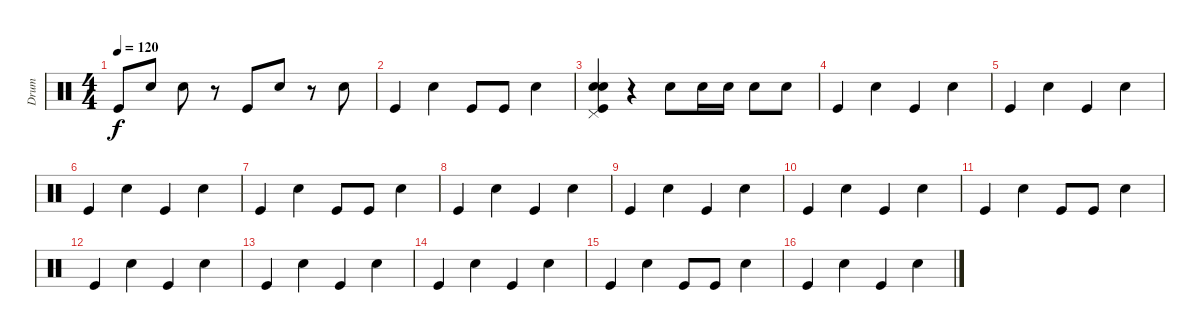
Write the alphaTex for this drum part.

\track ("Drum" "Drum") {instrument percussion}
\staff {score}
\articulation defaults
\ts (4 4)
\tempo 120
\clef neutral
\ks c "Kick (hit)".8{dy f} "Snare (hit) 2".8 "Snare (hit) 2".8
r.8 "Kick (hit)".8 "Snare (hit) 2".8 r.8 "Snare (hit) 2".8 |
"Kick (hit)".4 "Snare (hit) 2".4 "Kick (hit)".8 "Kick (hit)".8 "Snare (hit) 2".4 |
("Snare (hit) 2" "Kick (hit)" "Electric Snare (hit)" "Pedal Hi-Hat (hit)").4 r.4 "Snare (hit) 2".8 "Snare (hit) 2".16 "Snare (hit) 2".16 "Snare (hit) 2".8 "Snare (hit) 2".8 |
"Kick (hit)".4 "Snare (hit) 2".4 "Kick (hit)".4 "Snare (hit) 2".4 |
"Kick (hit)".4 "Snare (hit) 2".4 "Kick (hit)".4 "Snare (hit) 2".4 |
"Kick (hit)".4 "Snare (hit) 2".4 "Kick (hit)".4 "Snare (hit) 2".4 |
"Kick (hit)".4 "Snare (hit) 2".4 "Kick (hit)".8 "Kick (hit)".8 "Snare (hit) 2".4 |
"Kick (hit)".4 "Snare (hit) 2".4 "Kick (hit)".4 "Snare (hit) 2".4 |
"Kick (hit)".4 "Snare (hit) 2".4 "Kick (hit)".4 "Snare (hit) 2".4 |
"Kick (hit)".4 "Snare (hit) 2".4 "Kick (hit)".4 "Snare (hit) 2".4 |
"Kick (hit)".4 "Snare (hit) 2".4 "Kick (hit)".8 "Kick (hit)".8 "Snare (hit) 2".4 |
"Kick (hit)".4 "Snare (hit) 2".4 "Kick (hit)".4 "Snare (hit) 2".4 |
"Kick (hit)".4 "Snare (hit) 2".4 "Kick (hit)".4 "Snare (hit) 2".4 |
"Kick (hit)".4 "Snare (hit) 2".4 "Kick (hit)".4 "Snare (hit) 2".4 |
"Kick (hit)".4 "Snare (hit) 2".4 "Kick (hit)".8 "Kick (hit)".8 "Snare (hit) 2".4 |
"Kick (hit)".4 "Snare (hit) 2".4 "Kick (hit)".4 "Snare (hit) 2".4
